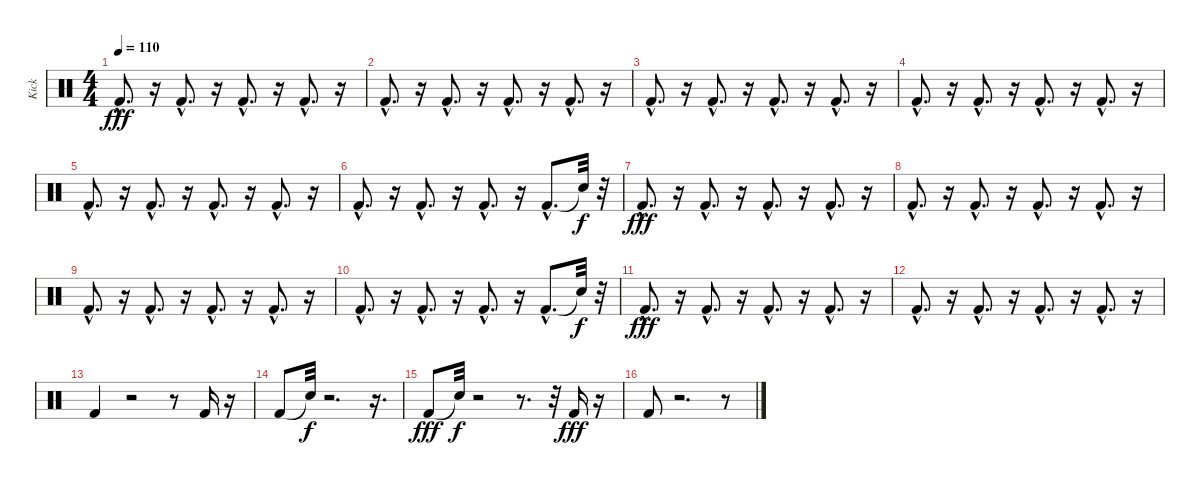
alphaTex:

\track ("Kick" "Kick") {instrument percussion}
\staff {score}
\articulation defaults
\ts (4 4)
\tempo 110
\clef neutral
\ks c "Kick (hit) 2"{hac}.8{d dy fff}
r.16 "Kick (hit) 2"{hac}.8{d} r.16 "Kick (hit) 2"{hac}.8{d} r.16 "Kick (hit) 2"{hac}.8{d} r.16 |
"Kick (hit) 2"{hac}.8{d} r.16 "Kick (hit) 2"{hac}.8{d} r.16 "Kick (hit) 2"{hac}.8{d} r.16 "Kick (hit) 2"{hac}.8{d} r.16 |
"Kick (hit) 2"{hac}.8{d} r.16 "Kick (hit) 2"{hac}.8{d} r.16 "Kick (hit) 2"{hac}.8{d} r.16 "Kick (hit) 2"{hac}.8{d} r.16 |
"Kick (hit) 2"{hac}.8{d} r.16 "Kick (hit) 2"{hac}.8{d} r.16 "Kick (hit) 2"{hac}.8{d} r.16 "Kick (hit) 2"{hac}.8{d} r.16 |
"Kick (hit) 2"{hac}.8{d} r.16 "Kick (hit) 2"{hac}.8{d} r.16 "Kick (hit) 2"{hac}.8{d} r.16 "Kick (hit) 2"{hac}.8{d} r.16 |
"Kick (hit) 2"{hac}.8{d} r.16 "Kick (hit) 2"{hac}.8{d} r.16 "Kick (hit) 2"{hac}.8{d} r.16 "Kick (hit) 2"{hac}.8{d} "Snare (hit)"{t}.32{dy f} r.32 |
"Kick (hit) 2"{hac}.8{d dy fff} r.16 "Kick (hit) 2"{hac}.8{d} r.16 "Kick (hit) 2"{hac}.8{d} r.16 "Kick (hit) 2"{hac}.8{d} r.16 |
"Kick (hit) 2"{hac}.8{d} r.16 "Kick (hit) 2"{hac}.8{d} r.16 "Kick (hit) 2"{hac}.8{d} r.16 "Kick (hit) 2"{hac}.8{d} r.16 |
"Kick (hit) 2"{hac}.8{d} r.16 "Kick (hit) 2"{hac}.8{d} r.16 "Kick (hit) 2"{hac}.8{d} r.16 "Kick (hit) 2"{hac}.8{d} r.16 |
"Kick (hit) 2"{hac}.8{d} r.16 "Kick (hit) 2"{hac}.8{d} r.16 "Kick (hit) 2"{hac}.8{d} r.16 "Kick (hit) 2"{hac}.8{d} "Snare (hit)"{t}.32{dy f} r.32 |
"Kick (hit) 2"{hac}.8{d dy fff} r.16 "Kick (hit) 2"{hac}.8{d} r.16 "Kick (hit) 2"{hac}.8{d} r.16 "Kick (hit) 2"{hac}.8{d} r.16 |
"Kick (hit) 2"{hac}.8{d} r.16 "Kick (hit) 2"{hac}.8{d} r.16 "Kick (hit) 2"{hac}.8{d} r.16 "Kick (hit) 2"{hac}.8{d} r.16 |
"Kick (hit) 2".4 r.2 r.8 "Kick (hit) 2".16 r.16 |
"Kick (hit) 2".8 "Snare (hit)"{t}.32{dy f} r.2{d} r.16{d} |
"Kick (hit) 2".8{dy fff} "Snare (hit)"{t}.32{dy f} r.2 r.8{d} r.32 "Kick (hit) 2".16{dy fff} r.16 |
"Kick (hit) 2".8 r.2{d} r.8
